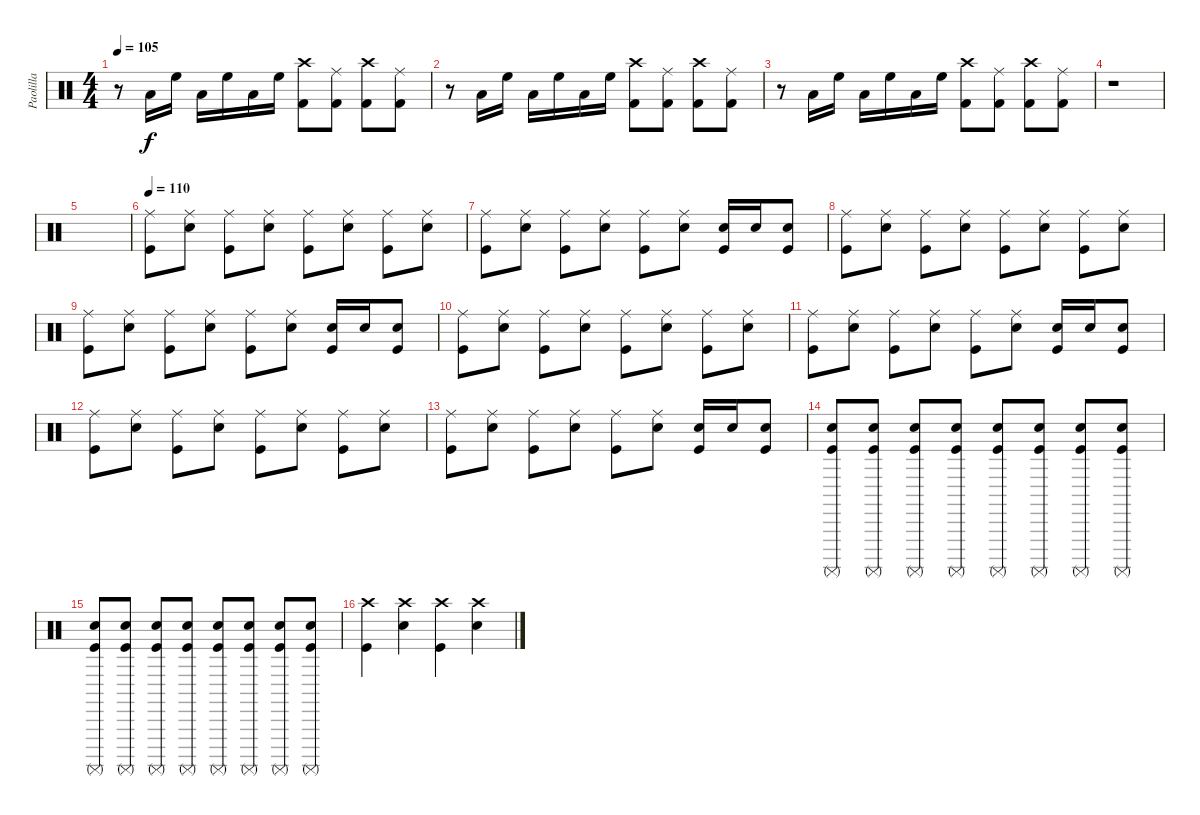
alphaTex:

\track ("Paolilla" "Paolilla") {instrument percussion}
\staff {score}
\articulation defaults
\ts (4 4)
\tempo 105
\clef neutral
\ks c
r.8{dy f} "Low Tom (hit)".16 "High Floor Tom (hit)".16 "Low Tom (hit)".16 "High Floor Tom (hit)".16 "Low Tom (hit)".16 "High Floor Tom (hit)".16 ("Crash high (hit)" "Kick (hit) 2").8 ("Ride (middle)" "Kick (hit) 2").8 ("Crash high (hit)" "Kick (hit) 2").8 ("Ride (middle)" "Kick (hit) 2").8 |
r.8 "Low Tom (hit)".16 "High Floor Tom (hit)".16 "Low Tom (hit)".16 "High Floor Tom (hit)".16 "Low Tom (hit)".16 "High Floor Tom (hit)".16 ("Crash high (hit)" "Kick (hit) 2").8 ("Ride (middle)" "Kick (hit) 2").8 ("Crash high (hit)" "Kick (hit) 2").8 ("Ride (middle)" "Kick (hit) 2").8 |
r.8 "Low Tom (hit)".16 "High Floor Tom (hit)".16 "Low Tom (hit)".16 "High Floor Tom (hit)".16 "Low Tom (hit)".16 "High Floor Tom (hit)".16 ("Crash high (hit)" "Kick (hit) 2").8 ("Ride (middle)" "Kick (hit) 2").8 ("Crash high (hit)" "Kick (hit) 2").8 ("Ride (middle)" "Kick (hit) 2").8 |
r.1 |
|
\tempo 110
("Ride (middle)" "Kick (hit)").8 ("Ride (middle)" "Snare (hit) 2").8 ("Ride (middle)" "Kick (hit)").8 ("Ride (middle)" "Snare (hit) 2").8 ("Ride (middle)" "Kick (hit)").8 ("Ride (middle)" "Snare (hit) 2").8 ("Ride (middle)" "Kick (hit)").8 ("Ride (middle)" "Snare (hit) 2").8 |
("Ride (middle)" "Kick (hit)").8 ("Ride (middle)" "Snare (hit) 2").8 ("Ride (middle)" "Kick (hit)").8 ("Ride (middle)" "Snare (hit) 2").8 ("Ride (middle)" "Kick (hit)").8 ("Ride (middle)" "Snare (hit) 2").8 ("Snare (hit) 2" "Kick (hit)").16 "Snare (hit) 2".16 ("Kick (hit)" "Snare (hit) 2").8 |
("Ride (middle)" "Kick (hit)").8 ("Ride (middle)" "Snare (hit) 2").8 ("Ride (middle)" "Kick (hit)").8 ("Ride (middle)" "Snare (hit) 2").8 ("Ride (middle)" "Kick (hit)").8 ("Ride (middle)" "Snare (hit) 2").8 ("Ride (middle)" "Kick (hit)").8 ("Ride (middle)" "Snare (hit) 2").8 |
("Ride (middle)" "Kick (hit)").8 ("Ride (middle)" "Snare (hit) 2").8 ("Ride (middle)" "Kick (hit)").8 ("Ride (middle)" "Snare (hit) 2").8 ("Ride (middle)" "Kick (hit)").8 ("Ride (middle)" "Snare (hit) 2").8 ("Snare (hit) 2" "Kick (hit)").16 "Snare (hit) 2".16 ("Kick (hit)" "Snare (hit) 2").8 |
("Ride (middle)" "Kick (hit)").8 ("Ride (middle)" "Snare (hit) 2").8 ("Ride (middle)" "Kick (hit)").8 ("Ride (middle)" "Snare (hit) 2").8 ("Ride (middle)" "Kick (hit)").8 ("Ride (middle)" "Snare (hit) 2").8 ("Ride (middle)" "Kick (hit)").8 ("Ride (middle)" "Snare (hit) 2").8 |
("Ride (middle)" "Kick (hit)").8 ("Ride (middle)" "Snare (hit) 2").8 ("Ride (middle)" "Kick (hit)").8 ("Ride (middle)" "Snare (hit) 2").8 ("Ride (middle)" "Kick (hit)").8 ("Ride (middle)" "Snare (hit) 2").8 ("Snare (hit) 2" "Kick (hit)").16 "Snare (hit) 2".16 ("Kick (hit)" "Snare (hit) 2").8 |
("Ride (middle)" "Kick (hit)").8 ("Ride (middle)" "Snare (hit) 2").8 ("Ride (middle)" "Kick (hit)").8 ("Ride (middle)" "Snare (hit) 2").8 ("Ride (middle)" "Kick (hit)").8 ("Ride (middle)" "Snare (hit) 2").8 ("Ride (middle)" "Kick (hit)").8 ("Ride (middle)" "Snare (hit) 2").8 |
("Ride (middle)" "Kick (hit)").8 ("Ride (middle)" "Snare (hit) 2").8 ("Ride (middle)" "Kick (hit)").8 ("Ride (middle)" "Snare (hit) 2").8 ("Ride (middle)" "Kick (hit)").8 ("Ride (middle)" "Snare (hit) 2").8 ("Snare (hit) 2" "Kick (hit)").16 "Snare (hit) 2".16 ("Kick (hit)" "Snare (hit) 2").8 |
("Kick (hit)" "Snare (hit) 2" "Surdo (mute)").8 ("Kick (hit)" "Snare (hit) 2" "Surdo (mute)").8 ("Kick (hit)" "Snare (hit) 2" "Surdo (mute)").8 ("Kick (hit)" "Snare (hit) 2" "Surdo (mute)").8 ("Kick (hit)" "Snare (hit) 2" "Surdo (mute)").8 ("Kick (hit)" "Snare (hit) 2" "Surdo (mute)").8 ("Kick (hit)" "Snare (hit) 2" "Surdo (mute)").8 ("Kick (hit)" "Snare (hit) 2" "Surdo (mute)").8 |
("Kick (hit)" "Snare (hit) 2" "Surdo (mute)").8 ("Kick (hit)" "Snare (hit) 2" "Surdo (mute)").8 ("Kick (hit)" "Snare (hit) 2" "Surdo (mute)").8 ("Kick (hit)" "Snare (hit) 2" "Surdo (mute)").8 ("Kick (hit)" "Snare (hit) 2" "Surdo (mute)").8 ("Kick (hit)" "Snare (hit) 2" "Surdo (mute)").8 ("Kick (hit)" "Snare (hit) 2" "Surdo (mute)").8 ("Kick (hit)" "Snare (hit) 2" "Surdo (mute)").8 |
("Crash high (hit)" "Kick (hit)").4 ("Crash high (hit)" "Snare (hit) 2").4 ("Crash high (hit)" "Kick (hit)").4 ("Crash high (hit)" "Snare (hit) 2").4
